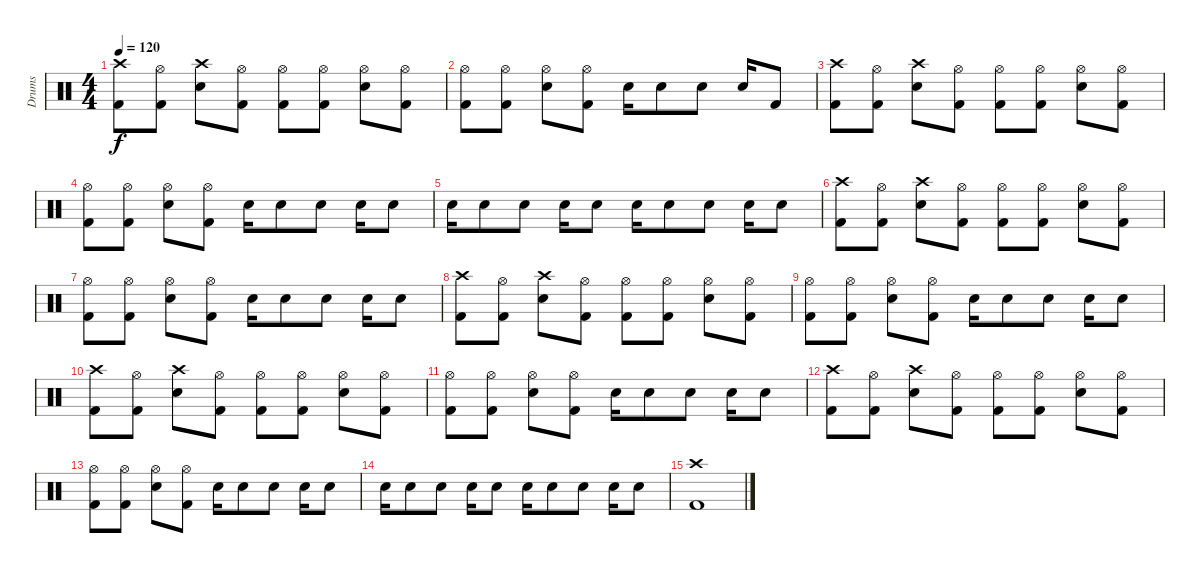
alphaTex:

\track ("Drums" "Drums") {instrument percussion}
\staff {score}
\articulation defaults
\ts (4 4)
\tempo 120
\clef neutral
\ks c
("Crash high (hit)" "Kick (hit) 2").8{dy f} ("Hi-Hat (open)" "Kick (hit) 2").8 ("Crash high (hit)" "Snare (hit) 2").8 ("Hi-Hat (open)" "Kick (hit) 2").8 ("Hi-Hat (open)" "Kick (hit) 2").8 ("Hi-Hat (open)" "Kick (hit) 2").8 ("Hi-Hat (open)" "Snare (hit) 2").8 ("Hi-Hat (open)" "Kick (hit) 2").8 |
("Hi-Hat (open)" "Kick (hit) 2").8 ("Hi-Hat (open)" "Kick (hit) 2").8 ("Hi-Hat (open)" "Snare (hit) 2").8 ("Hi-Hat (open)" "Kick (hit) 2").8 "Snare (hit) 2".16 "Snare (hit) 2".8 "Snare (hit) 2".8 "Snare (hit) 2".16 "Kick (hit) 2".8 |
("Crash high (hit)" "Kick (hit) 2").8 ("Hi-Hat (open)" "Kick (hit) 2").8 ("Crash high (hit)" "Snare (hit) 2").8 ("Hi-Hat (open)" "Kick (hit) 2").8 ("Hi-Hat (open)" "Kick (hit) 2").8 ("Hi-Hat (open)" "Kick (hit) 2").8 ("Hi-Hat (open)" "Snare (hit) 2").8 ("Hi-Hat (open)" "Kick (hit) 2").8 |
("Hi-Hat (open)" "Kick (hit) 2").8 ("Hi-Hat (open)" "Kick (hit) 2").8 ("Hi-Hat (open)" "Snare (hit) 2").8 ("Hi-Hat (open)" "Kick (hit) 2").8 "Snare (hit) 2".16 "Snare (hit) 2".8 "Snare (hit) 2".8 "Snare (hit) 2".16 "Snare (hit) 2".8 |
"Snare (hit) 2".16 "Snare (hit) 2".8 "Snare (hit) 2".8 "Snare (hit) 2".16 "Snare (hit) 2".8 "Snare (hit) 2".16 "Snare (hit) 2".8 "Snare (hit) 2".8 "Snare (hit) 2".16 "Snare (hit) 2".8 |
("Crash high (hit)" "Kick (hit) 2").8 ("Hi-Hat (open)" "Kick (hit) 2").8 ("Crash high (hit)" "Snare (hit) 2").8 ("Hi-Hat (open)" "Kick (hit) 2").8 ("Hi-Hat (open)" "Kick (hit) 2").8 ("Hi-Hat (open)" "Kick (hit) 2").8 ("Hi-Hat (open)" "Snare (hit) 2").8 ("Hi-Hat (open)" "Kick (hit) 2").8 |
("Hi-Hat (open)" "Kick (hit) 2").8 ("Hi-Hat (open)" "Kick (hit) 2").8 ("Hi-Hat (open)" "Snare (hit) 2").8 ("Hi-Hat (open)" "Kick (hit) 2").8 "Snare (hit) 2".16 "Snare (hit) 2".8 "Snare (hit) 2".8 "Snare (hit) 2".16 "Snare (hit) 2".8 |
("Crash high (hit)" "Kick (hit) 2").8 ("Hi-Hat (open)" "Kick (hit) 2").8 ("Crash high (hit)" "Snare (hit) 2").8 ("Hi-Hat (open)" "Kick (hit) 2").8 ("Hi-Hat (open)" "Kick (hit) 2").8 ("Hi-Hat (open)" "Kick (hit) 2").8 ("Hi-Hat (open)" "Snare (hit) 2").8 ("Hi-Hat (open)" "Kick (hit) 2").8 |
("Hi-Hat (open)" "Kick (hit) 2").8 ("Hi-Hat (open)" "Kick (hit) 2").8 ("Hi-Hat (open)" "Snare (hit) 2").8 ("Hi-Hat (open)" "Kick (hit) 2").8 "Snare (hit) 2".16 "Snare (hit) 2".8 "Snare (hit) 2".8 "Snare (hit) 2".16 "Snare (hit) 2".8 |
("Crash high (hit)" "Kick (hit) 2").8 ("Hi-Hat (open)" "Kick (hit) 2").8 ("Crash high (hit)" "Snare (hit) 2").8 ("Hi-Hat (open)" "Kick (hit) 2").8 ("Hi-Hat (open)" "Kick (hit) 2").8 ("Hi-Hat (open)" "Kick (hit) 2").8 ("Hi-Hat (open)" "Snare (hit) 2").8 ("Hi-Hat (open)" "Kick (hit) 2").8 |
("Hi-Hat (open)" "Kick (hit) 2").8 ("Hi-Hat (open)" "Kick (hit) 2").8 ("Hi-Hat (open)" "Snare (hit) 2").8 ("Hi-Hat (open)" "Kick (hit) 2").8 "Snare (hit) 2".16 "Snare (hit) 2".8 "Snare (hit) 2".8 "Snare (hit) 2".16 "Snare (hit) 2".8 |
("Crash high (hit)" "Kick (hit) 2").8 ("Hi-Hat (open)" "Kick (hit) 2").8 ("Crash high (hit)" "Snare (hit) 2").8 ("Hi-Hat (open)" "Kick (hit) 2").8 ("Hi-Hat (open)" "Kick (hit) 2").8 ("Hi-Hat (open)" "Kick (hit) 2").8 ("Hi-Hat (open)" "Snare (hit) 2").8 ("Hi-Hat (open)" "Kick (hit) 2").8 |
("Hi-Hat (open)" "Kick (hit) 2").8 ("Hi-Hat (open)" "Kick (hit) 2").8 ("Hi-Hat (open)" "Snare (hit) 2").8 ("Hi-Hat (open)" "Kick (hit) 2").8 "Snare (hit) 2".16 "Snare (hit) 2".8 "Snare (hit) 2".8 "Snare (hit) 2".16 "Snare (hit) 2".8 |
"Snare (hit) 2".16 "Snare (hit) 2".8 "Snare (hit) 2".8 "Snare (hit) 2".16 "Snare (hit) 2".8 "Snare (hit) 2".16 "Snare (hit) 2".8 "Snare (hit) 2".8 "Snare (hit) 2".16 "Snare (hit) 2".8 |
("Crash high (hit)" "Kick (hit) 2").1
